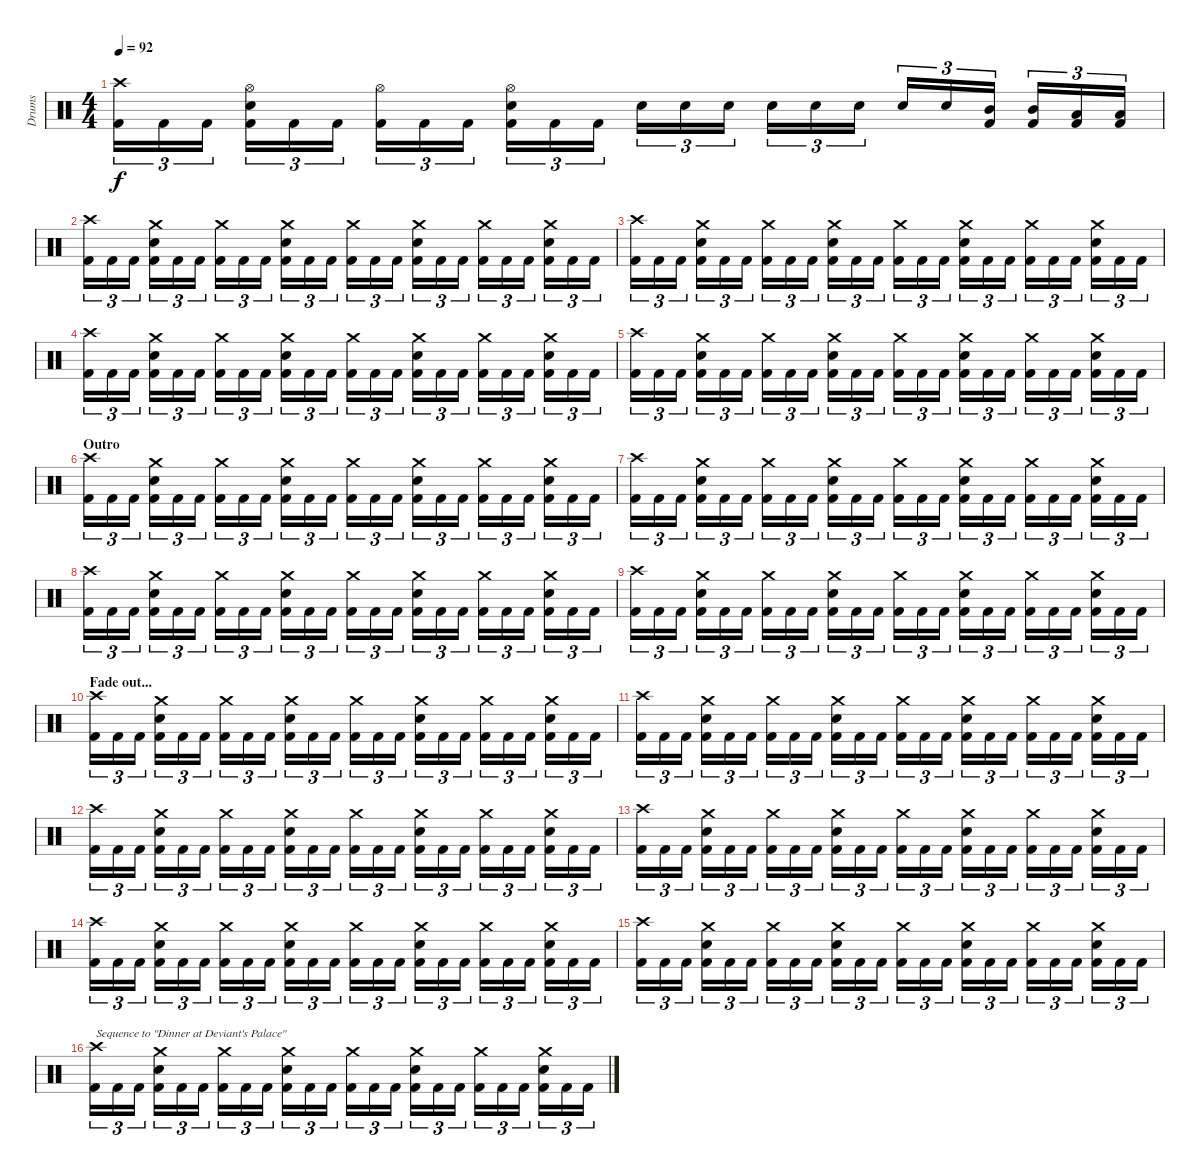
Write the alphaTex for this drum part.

\track ("Drums" "Drums") {instrument percussion}
\staff {score}
\articulation defaults
\ts (4 4)
\tempo 92
\clef neutral
\ks c
("Kick (hit) 2" "Crash high (hit)").16{tu (3 2) dy f} "Kick (hit) 2".16{tu (3 2)} "Kick (hit) 2".16{tu (3 2)} ("Kick (hit) 2" "Electric Snare (hit)" "Hi-Hat (open)").16{tu (3 2)} "Kick (hit) 2".16{tu (3 2)} "Kick (hit) 2".16{tu (3 2)} ("Kick (hit) 2" "Hi-Hat (open)").16{tu (3 2)} "Kick (hit) 2".16{tu (3 2)} "Kick (hit) 2".16{tu (3 2)} ("Kick (hit) 2" "Electric Snare (hit)" "Hi-Hat (open)").16{tu (3 2)} "Kick (hit) 2".16{tu (3 2)} "Kick (hit) 2".16{tu (3 2)} "Electric Snare (hit)".16{tu (3 2)} "Electric Snare (hit)".16{tu (3 2)} "Electric Snare (hit)".16{tu (3 2)} "Electric Snare (hit)".16{tu (3 2)} "Electric Snare (hit)".16{tu (3 2)} "Electric Snare (hit)".16{tu (3 2)} "Electric Snare (hit)".16{tu (3 2)} "Electric Snare (hit)".16{tu (3 2)} ("Kick (hit) 2" "Mid Tom (hit)").16{tu (3 2)} ("Kick (hit) 2" "Mid Tom (hit)").16{tu (3 2)} ("Kick (hit) 2" "Low Tom (hit)").16{tu (3 2)} ("Kick (hit) 2" "Low Tom (hit)").16{tu (3 2)} |
("Kick (hit) 2" "Crash high (hit)").16{tu (3 2)} "Kick (hit) 2".16{tu (3 2)} "Kick (hit) 2".16{tu (3 2)} ("Kick (hit) 2" "Electric Snare (hit)" "Crash medium (hit)").16{tu (3 2)} "Kick (hit) 2".16{tu (3 2)} "Kick (hit) 2".16{tu (3 2)} ("Kick (hit) 2" "Crash medium (hit)").16{tu (3 2)} "Kick (hit) 2".16{tu (3 2)} "Kick (hit) 2".16{tu (3 2)} ("Kick (hit) 2" "Electric Snare (hit)" "Crash medium (hit)").16{tu (3 2)} "Kick (hit) 2".16{tu (3 2)} "Kick (hit) 2".16{tu (3 2)} ("Kick (hit) 2" "Crash medium (hit)").16{tu (3 2)} "Kick (hit) 2".16{tu (3 2)} "Kick (hit) 2".16{tu (3 2)} ("Kick (hit) 2" "Electric Snare (hit)" "Crash medium (hit)").16{tu (3 2)} "Kick (hit) 2".16{tu (3 2)} "Kick (hit) 2".16{tu (3 2)} ("Kick (hit) 2" "Crash medium (hit)").16{tu (3 2)} "Kick (hit) 2".16{tu (3 2)} "Kick (hit) 2".16{tu (3 2)} ("Kick (hit) 2" "Electric Snare (hit)" "Crash medium (hit)").16{tu (3 2)} "Kick (hit) 2".16{tu (3 2)} "Kick (hit) 2".16{tu (3 2)} |
("Kick (hit) 2" "Crash high (hit)").16{tu (3 2)} "Kick (hit) 2".16{tu (3 2)} "Kick (hit) 2".16{tu (3 2)} ("Kick (hit) 2" "Electric Snare (hit)" "Crash medium (hit)").16{tu (3 2)} "Kick (hit) 2".16{tu (3 2)} "Kick (hit) 2".16{tu (3 2)} ("Kick (hit) 2" "Crash medium (hit)").16{tu (3 2)} "Kick (hit) 2".16{tu (3 2)} "Kick (hit) 2".16{tu (3 2)} ("Kick (hit) 2" "Electric Snare (hit)" "Crash medium (hit)").16{tu (3 2)} "Kick (hit) 2".16{tu (3 2)} "Kick (hit) 2".16{tu (3 2)} ("Kick (hit) 2" "Crash medium (hit)").16{tu (3 2)} "Kick (hit) 2".16{tu (3 2)} "Kick (hit) 2".16{tu (3 2)} ("Kick (hit) 2" "Electric Snare (hit)" "Crash medium (hit)").16{tu (3 2)} "Kick (hit) 2".16{tu (3 2)} "Kick (hit) 2".16{tu (3 2)} ("Kick (hit) 2" "Crash medium (hit)").16{tu (3 2)} "Kick (hit) 2".16{tu (3 2)} "Kick (hit) 2".16{tu (3 2)} ("Kick (hit) 2" "Electric Snare (hit)" "Crash medium (hit)").16{tu (3 2)} "Kick (hit) 2".16{tu (3 2)} "Kick (hit) 2".16{tu (3 2)} |
("Kick (hit) 2" "Crash high (hit)").16{tu (3 2)} "Kick (hit) 2".16{tu (3 2)} "Kick (hit) 2".16{tu (3 2)} ("Kick (hit) 2" "Electric Snare (hit)" "Crash medium (hit)").16{tu (3 2)} "Kick (hit) 2".16{tu (3 2)} "Kick (hit) 2".16{tu (3 2)} ("Kick (hit) 2" "Crash medium (hit)").16{tu (3 2)} "Kick (hit) 2".16{tu (3 2)} "Kick (hit) 2".16{tu (3 2)} ("Kick (hit) 2" "Electric Snare (hit)" "Crash medium (hit)").16{tu (3 2)} "Kick (hit) 2".16{tu (3 2)} "Kick (hit) 2".16{tu (3 2)} ("Kick (hit) 2" "Crash medium (hit)").16{tu (3 2)} "Kick (hit) 2".16{tu (3 2)} "Kick (hit) 2".16{tu (3 2)} ("Kick (hit) 2" "Electric Snare (hit)" "Crash medium (hit)").16{tu (3 2)} "Kick (hit) 2".16{tu (3 2)} "Kick (hit) 2".16{tu (3 2)} ("Kick (hit) 2" "Crash medium (hit)").16{tu (3 2)} "Kick (hit) 2".16{tu (3 2)} "Kick (hit) 2".16{tu (3 2)} ("Kick (hit) 2" "Electric Snare (hit)" "Crash medium (hit)").16{tu (3 2)} "Kick (hit) 2".16{tu (3 2)} "Kick (hit) 2".16{tu (3 2)} |
("Kick (hit) 2" "Crash high (hit)").16{tu (3 2)} "Kick (hit) 2".16{tu (3 2)} "Kick (hit) 2".16{tu (3 2)} ("Kick (hit) 2" "Electric Snare (hit)" "Crash medium (hit)").16{tu (3 2)} "Kick (hit) 2".16{tu (3 2)} "Kick (hit) 2".16{tu (3 2)} ("Kick (hit) 2" "Crash medium (hit)").16{tu (3 2)} "Kick (hit) 2".16{tu (3 2)} "Kick (hit) 2".16{tu (3 2)} ("Kick (hit) 2" "Electric Snare (hit)" "Crash medium (hit)").16{tu (3 2)} "Kick (hit) 2".16{tu (3 2)} "Kick (hit) 2".16{tu (3 2)} ("Kick (hit) 2" "Crash medium (hit)").16{tu (3 2)} "Kick (hit) 2".16{tu (3 2)} "Kick (hit) 2".16{tu (3 2)} ("Kick (hit) 2" "Electric Snare (hit)" "Crash medium (hit)").16{tu (3 2)} "Kick (hit) 2".16{tu (3 2)} "Kick (hit) 2".16{tu (3 2)} ("Kick (hit) 2" "Crash medium (hit)").16{tu (3 2)} "Kick (hit) 2".16{tu (3 2)} "Kick (hit) 2".16{tu (3 2)} ("Kick (hit) 2" "Electric Snare (hit)" "Crash medium (hit)").16{tu (3 2)} "Kick (hit) 2".16{tu (3 2)} "Kick (hit) 2".16{tu (3 2)} |
\section ("" "Outro")
("Kick (hit) 2" "Crash high (hit)").16{tu (3 2)} "Kick (hit) 2".16{tu (3 2)} "Kick (hit) 2".16{tu (3 2)} ("Kick (hit) 2" "Electric Snare (hit)" "Crash medium (hit)").16{tu (3 2)} "Kick (hit) 2".16{tu (3 2)} "Kick (hit) 2".16{tu (3 2)} ("Kick (hit) 2" "Crash medium (hit)").16{tu (3 2)} "Kick (hit) 2".16{tu (3 2)} "Kick (hit) 2".16{tu (3 2)} ("Kick (hit) 2" "Electric Snare (hit)" "Crash medium (hit)").16{tu (3 2)} "Kick (hit) 2".16{tu (3 2)} "Kick (hit) 2".16{tu (3 2)} ("Kick (hit) 2" "Crash medium (hit)").16{tu (3 2)} "Kick (hit) 2".16{tu (3 2)} "Kick (hit) 2".16{tu (3 2)} ("Kick (hit) 2" "Electric Snare (hit)" "Crash medium (hit)").16{tu (3 2)} "Kick (hit) 2".16{tu (3 2)} "Kick (hit) 2".16{tu (3 2)} ("Kick (hit) 2" "Crash medium (hit)").16{tu (3 2)} "Kick (hit) 2".16{tu (3 2)} "Kick (hit) 2".16{tu (3 2)} ("Kick (hit) 2" "Electric Snare (hit)" "Crash medium (hit)").16{tu (3 2)} "Kick (hit) 2".16{tu (3 2)} "Kick (hit) 2".16{tu (3 2)} |
("Kick (hit) 2" "Crash high (hit)").16{tu (3 2)} "Kick (hit) 2".16{tu (3 2)} "Kick (hit) 2".16{tu (3 2)} ("Kick (hit) 2" "Electric Snare (hit)" "Crash medium (hit)").16{tu (3 2)} "Kick (hit) 2".16{tu (3 2)} "Kick (hit) 2".16{tu (3 2)} ("Kick (hit) 2" "Crash medium (hit)").16{tu (3 2)} "Kick (hit) 2".16{tu (3 2)} "Kick (hit) 2".16{tu (3 2)} ("Kick (hit) 2" "Electric Snare (hit)" "Crash medium (hit)").16{tu (3 2)} "Kick (hit) 2".16{tu (3 2)} "Kick (hit) 2".16{tu (3 2)} ("Kick (hit) 2" "Crash medium (hit)").16{tu (3 2)} "Kick (hit) 2".16{tu (3 2)} "Kick (hit) 2".16{tu (3 2)} ("Kick (hit) 2" "Electric Snare (hit)" "Crash medium (hit)").16{tu (3 2)} "Kick (hit) 2".16{tu (3 2)} "Kick (hit) 2".16{tu (3 2)} ("Kick (hit) 2" "Crash medium (hit)").16{tu (3 2)} "Kick (hit) 2".16{tu (3 2)} "Kick (hit) 2".16{tu (3 2)} ("Kick (hit) 2" "Electric Snare (hit)" "Crash medium (hit)").16{tu (3 2)} "Kick (hit) 2".16{tu (3 2)} "Kick (hit) 2".16{tu (3 2)} |
("Kick (hit) 2" "Crash high (hit)").16{tu (3 2)} "Kick (hit) 2".16{tu (3 2)} "Kick (hit) 2".16{tu (3 2)} ("Kick (hit) 2" "Electric Snare (hit)" "Crash medium (hit)").16{tu (3 2)} "Kick (hit) 2".16{tu (3 2)} "Kick (hit) 2".16{tu (3 2)} ("Kick (hit) 2" "Crash medium (hit)").16{tu (3 2)} "Kick (hit) 2".16{tu (3 2)} "Kick (hit) 2".16{tu (3 2)} ("Kick (hit) 2" "Electric Snare (hit)" "Crash medium (hit)").16{tu (3 2)} "Kick (hit) 2".16{tu (3 2)} "Kick (hit) 2".16{tu (3 2)} ("Kick (hit) 2" "Crash medium (hit)").16{tu (3 2)} "Kick (hit) 2".16{tu (3 2)} "Kick (hit) 2".16{tu (3 2)} ("Kick (hit) 2" "Electric Snare (hit)" "Crash medium (hit)").16{tu (3 2)} "Kick (hit) 2".16{tu (3 2)} "Kick (hit) 2".16{tu (3 2)} ("Kick (hit) 2" "Crash medium (hit)").16{tu (3 2)} "Kick (hit) 2".16{tu (3 2)} "Kick (hit) 2".16{tu (3 2)} ("Kick (hit) 2" "Electric Snare (hit)" "Crash medium (hit)").16{tu (3 2)} "Kick (hit) 2".16{tu (3 2)} "Kick (hit) 2".16{tu (3 2)} |
("Kick (hit) 2" "Crash high (hit)").16{tu (3 2)} "Kick (hit) 2".16{tu (3 2)} "Kick (hit) 2".16{tu (3 2)} ("Kick (hit) 2" "Electric Snare (hit)" "Crash medium (hit)").16{tu (3 2)} "Kick (hit) 2".16{tu (3 2)} "Kick (hit) 2".16{tu (3 2)} ("Kick (hit) 2" "Crash medium (hit)").16{tu (3 2)} "Kick (hit) 2".16{tu (3 2)} "Kick (hit) 2".16{tu (3 2)} ("Kick (hit) 2" "Electric Snare (hit)" "Crash medium (hit)").16{tu (3 2)} "Kick (hit) 2".16{tu (3 2)} "Kick (hit) 2".16{tu (3 2)} ("Kick (hit) 2" "Crash medium (hit)").16{tu (3 2)} "Kick (hit) 2".16{tu (3 2)} "Kick (hit) 2".16{tu (3 2)} ("Kick (hit) 2" "Electric Snare (hit)" "Crash medium (hit)").16{tu (3 2)} "Kick (hit) 2".16{tu (3 2)} "Kick (hit) 2".16{tu (3 2)} ("Kick (hit) 2" "Crash medium (hit)").16{tu (3 2)} "Kick (hit) 2".16{tu (3 2)} "Kick (hit) 2".16{tu (3 2)} ("Kick (hit) 2" "Electric Snare (hit)" "Crash medium (hit)").16{tu (3 2)} "Kick (hit) 2".16{tu (3 2)} "Kick (hit) 2".16{tu (3 2)} |
\section ("" "Fade out...")
("Kick (hit) 2" "Crash high (hit)").16{tu (3 2) volume 13} "Kick (hit) 2".16{tu (3 2)} "Kick (hit) 2".16{tu (3 2)} ("Kick (hit) 2" "Electric Snare (hit)" "Crash medium (hit)").16{tu (3 2)} "Kick (hit) 2".16{tu (3 2)} "Kick (hit) 2".16{tu (3 2)} ("Kick (hit) 2" "Crash medium (hit)").16{tu (3 2)} "Kick (hit) 2".16{tu (3 2)} "Kick (hit) 2".16{tu (3 2)} ("Kick (hit) 2" "Electric Snare (hit)" "Crash medium (hit)").16{tu (3 2)} "Kick (hit) 2".16{tu (3 2)} "Kick (hit) 2".16{tu (3 2)} ("Kick (hit) 2" "Crash medium (hit)").16{tu (3 2)} "Kick (hit) 2".16{tu (3 2)} "Kick (hit) 2".16{tu (3 2)} ("Kick (hit) 2" "Electric Snare (hit)" "Crash medium (hit)").16{tu (3 2)} "Kick (hit) 2".16{tu (3 2)} "Kick (hit) 2".16{tu (3 2)} ("Kick (hit) 2" "Crash medium (hit)").16{tu (3 2)} "Kick (hit) 2".16{tu (3 2)} "Kick (hit) 2".16{tu (3 2)} ("Kick (hit) 2" "Electric Snare (hit)" "Crash medium (hit)").16{tu (3 2)} "Kick (hit) 2".16{tu (3 2)} "Kick (hit) 2".16{tu (3 2)} |
("Kick (hit) 2" "Crash high (hit)").16{tu (3 2)} "Kick (hit) 2".16{tu (3 2)} "Kick (hit) 2".16{tu (3 2)} ("Kick (hit) 2" "Electric Snare (hit)" "Crash medium (hit)").16{tu (3 2)} "Kick (hit) 2".16{tu (3 2)} "Kick (hit) 2".16{tu (3 2)} ("Kick (hit) 2" "Crash medium (hit)").16{tu (3 2)} "Kick (hit) 2".16{tu (3 2)} "Kick (hit) 2".16{tu (3 2)} ("Kick (hit) 2" "Electric Snare (hit)" "Crash medium (hit)").16{tu (3 2)} "Kick (hit) 2".16{tu (3 2)} "Kick (hit) 2".16{tu (3 2)} ("Kick (hit) 2" "Crash medium (hit)").16{tu (3 2)} "Kick (hit) 2".16{tu (3 2)} "Kick (hit) 2".16{tu (3 2)} ("Kick (hit) 2" "Electric Snare (hit)" "Crash medium (hit)").16{tu (3 2)} "Kick (hit) 2".16{tu (3 2)} "Kick (hit) 2".16{tu (3 2)} ("Kick (hit) 2" "Crash medium (hit)").16{tu (3 2)} "Kick (hit) 2".16{tu (3 2)} "Kick (hit) 2".16{tu (3 2)} ("Kick (hit) 2" "Electric Snare (hit)" "Crash medium (hit)").16{tu (3 2)} "Kick (hit) 2".16{tu (3 2)} "Kick (hit) 2".16{tu (3 2)} |
("Kick (hit) 2" "Crash high (hit)").16{tu (3 2) volume 10} "Kick (hit) 2".16{tu (3 2)} "Kick (hit) 2".16{tu (3 2)} ("Kick (hit) 2" "Electric Snare (hit)" "Crash medium (hit)").16{tu (3 2)} "Kick (hit) 2".16{tu (3 2)} "Kick (hit) 2".16{tu (3 2)} ("Kick (hit) 2" "Crash medium (hit)").16{tu (3 2)} "Kick (hit) 2".16{tu (3 2)} "Kick (hit) 2".16{tu (3 2)} ("Kick (hit) 2" "Electric Snare (hit)" "Crash medium (hit)").16{tu (3 2)} "Kick (hit) 2".16{tu (3 2)} "Kick (hit) 2".16{tu (3 2)} ("Kick (hit) 2" "Crash medium (hit)").16{tu (3 2)} "Kick (hit) 2".16{tu (3 2)} "Kick (hit) 2".16{tu (3 2)} ("Kick (hit) 2" "Electric Snare (hit)" "Crash medium (hit)").16{tu (3 2)} "Kick (hit) 2".16{tu (3 2)} "Kick (hit) 2".16{tu (3 2)} ("Kick (hit) 2" "Crash medium (hit)").16{tu (3 2)} "Kick (hit) 2".16{tu (3 2)} "Kick (hit) 2".16{tu (3 2)} ("Kick (hit) 2" "Electric Snare (hit)" "Crash medium (hit)").16{tu (3 2)} "Kick (hit) 2".16{tu (3 2)} "Kick (hit) 2".16{tu (3 2)} |
("Kick (hit) 2" "Crash high (hit)").16{tu (3 2)} "Kick (hit) 2".16{tu (3 2)} "Kick (hit) 2".16{tu (3 2)} ("Kick (hit) 2" "Electric Snare (hit)" "Crash medium (hit)").16{tu (3 2)} "Kick (hit) 2".16{tu (3 2)} "Kick (hit) 2".16{tu (3 2)} ("Kick (hit) 2" "Crash medium (hit)").16{tu (3 2)} "Kick (hit) 2".16{tu (3 2)} "Kick (hit) 2".16{tu (3 2)} ("Kick (hit) 2" "Electric Snare (hit)" "Crash medium (hit)").16{tu (3 2)} "Kick (hit) 2".16{tu (3 2)} "Kick (hit) 2".16{tu (3 2)} ("Kick (hit) 2" "Crash medium (hit)").16{tu (3 2)} "Kick (hit) 2".16{tu (3 2)} "Kick (hit) 2".16{tu (3 2)} ("Kick (hit) 2" "Electric Snare (hit)" "Crash medium (hit)").16{tu (3 2)} "Kick (hit) 2".16{tu (3 2)} "Kick (hit) 2".16{tu (3 2)} ("Kick (hit) 2" "Crash medium (hit)").16{tu (3 2)} "Kick (hit) 2".16{tu (3 2)} "Kick (hit) 2".16{tu (3 2)} ("Kick (hit) 2" "Electric Snare (hit)" "Crash medium (hit)").16{tu (3 2)} "Kick (hit) 2".16{tu (3 2)} "Kick (hit) 2".16{tu (3 2)} |
("Kick (hit) 2" "Crash high (hit)").16{tu (3 2) volume 5} "Kick (hit) 2".16{tu (3 2)} "Kick (hit) 2".16{tu (3 2)} ("Kick (hit) 2" "Electric Snare (hit)" "Crash medium (hit)").16{tu (3 2)} "Kick (hit) 2".16{tu (3 2)} "Kick (hit) 2".16{tu (3 2)} ("Kick (hit) 2" "Crash medium (hit)").16{tu (3 2)} "Kick (hit) 2".16{tu (3 2)} "Kick (hit) 2".16{tu (3 2)} ("Kick (hit) 2" "Electric Snare (hit)" "Crash medium (hit)").16{tu (3 2)} "Kick (hit) 2".16{tu (3 2)} "Kick (hit) 2".16{tu (3 2)} ("Kick (hit) 2" "Crash medium (hit)").16{tu (3 2)} "Kick (hit) 2".16{tu (3 2)} "Kick (hit) 2".16{tu (3 2)} ("Kick (hit) 2" "Electric Snare (hit)" "Crash medium (hit)").16{tu (3 2)} "Kick (hit) 2".16{tu (3 2)} "Kick (hit) 2".16{tu (3 2)} ("Kick (hit) 2" "Crash medium (hit)").16{tu (3 2)} "Kick (hit) 2".16{tu (3 2)} "Kick (hit) 2".16{tu (3 2)} ("Kick (hit) 2" "Electric Snare (hit)" "Crash medium (hit)").16{tu (3 2)} "Kick (hit) 2".16{tu (3 2)} "Kick (hit) 2".16{tu (3 2)} |
("Kick (hit) 2" "Crash high (hit)").16{tu (3 2)} "Kick (hit) 2".16{tu (3 2)} "Kick (hit) 2".16{tu (3 2)} ("Kick (hit) 2" "Electric Snare (hit)" "Crash medium (hit)").16{tu (3 2)} "Kick (hit) 2".16{tu (3 2)} "Kick (hit) 2".16{tu (3 2)} ("Kick (hit) 2" "Crash medium (hit)").16{tu (3 2)} "Kick (hit) 2".16{tu (3 2)} "Kick (hit) 2".16{tu (3 2)} ("Kick (hit) 2" "Electric Snare (hit)" "Crash medium (hit)").16{tu (3 2)} "Kick (hit) 2".16{tu (3 2)} "Kick (hit) 2".16{tu (3 2)} ("Kick (hit) 2" "Crash medium (hit)").16{tu (3 2)} "Kick (hit) 2".16{tu (3 2)} "Kick (hit) 2".16{tu (3 2)} ("Kick (hit) 2" "Electric Snare (hit)" "Crash medium (hit)").16{tu (3 2)} "Kick (hit) 2".16{tu (3 2)} "Kick (hit) 2".16{tu (3 2)} ("Kick (hit) 2" "Crash medium (hit)").16{tu (3 2)} "Kick (hit) 2".16{tu (3 2)} "Kick (hit) 2".16{tu (3 2)} ("Kick (hit) 2" "Electric Snare (hit)" "Crash medium (hit)").16{tu (3 2)} "Kick (hit) 2".16{tu (3 2)} "Kick (hit) 2".16{tu (3 2)} |
("Kick (hit) 2" "Crash high (hit)").16{tu (3 2) txt "Sequence to \"Dinner at Deviant's Palace\"" volume 0} "Kick (hit) 2".16{tu (3 2)} "Kick (hit) 2".16{tu (3 2)} ("Kick (hit) 2" "Electric Snare (hit)" "Crash medium (hit)").16{tu (3 2)} "Kick (hit) 2".16{tu (3 2)} "Kick (hit) 2".16{tu (3 2)} ("Kick (hit) 2" "Crash medium (hit)").16{tu (3 2)} "Kick (hit) 2".16{tu (3 2)} "Kick (hit) 2".16{tu (3 2)} ("Kick (hit) 2" "Electric Snare (hit)" "Crash medium (hit)").16{tu (3 2)} "Kick (hit) 2".16{tu (3 2)} "Kick (hit) 2".16{tu (3 2)} ("Kick (hit) 2" "Crash medium (hit)").16{tu (3 2)} "Kick (hit) 2".16{tu (3 2)} "Kick (hit) 2".16{tu (3 2)} ("Kick (hit) 2" "Electric Snare (hit)" "Crash medium (hit)").16{tu (3 2)} "Kick (hit) 2".16{tu (3 2)} "Kick (hit) 2".16{tu (3 2)} ("Kick (hit) 2" "Crash medium (hit)").16{tu (3 2)} "Kick (hit) 2".16{tu (3 2)} "Kick (hit) 2".16{tu (3 2)} ("Kick (hit) 2" "Electric Snare (hit)" "Crash medium (hit)").16{tu (3 2)} "Kick (hit) 2".16{tu (3 2)} "Kick (hit) 2".16{tu (3 2)}
